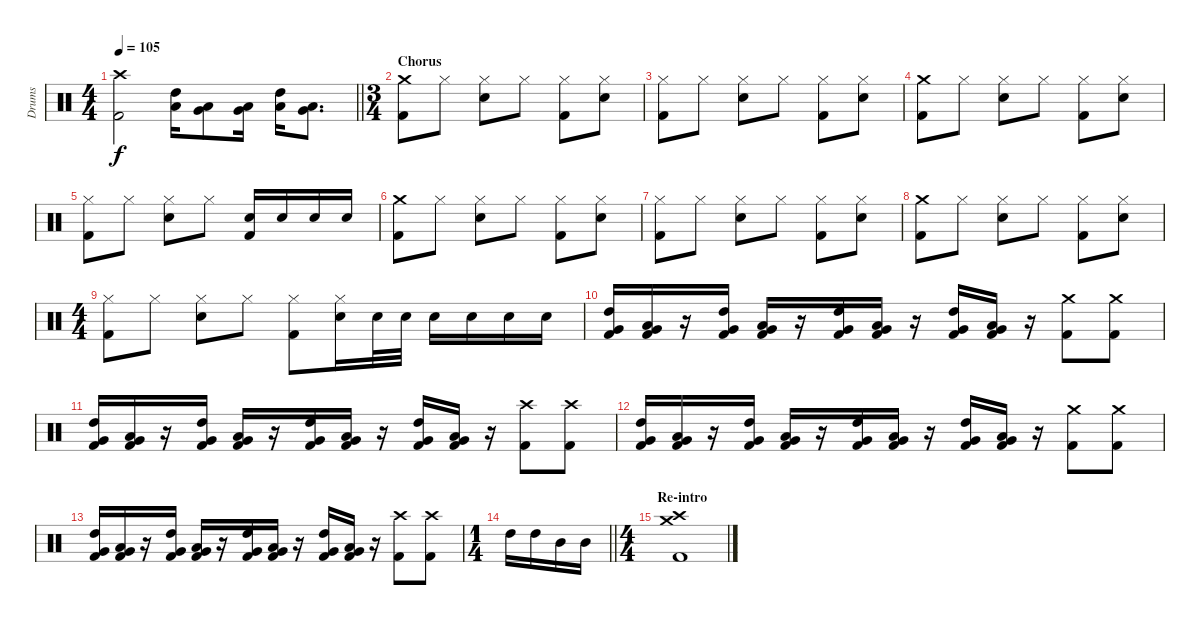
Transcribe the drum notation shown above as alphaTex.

\track ("Drums" "Drums") {instrument percussion}
\staff {score}
\articulation defaults
\ts (4 4)
\tempo 105
\clef neutral
\barLineRight lightlight
\ks c
("Kick (hit) 2" "Crash high (hit)").2{dy f} ("High Tom (hit)" "Low Tom (hit)").16 ("Low Tom (hit)" "Very Low Tom (hit)").8 ("Low Tom (hit)" "Very Low Tom (hit)").16 ("High Tom (hit)" "Low Tom (hit)").16 ("Low Tom (hit)" "Very Low Tom (hit)").8{d} |
\ts (3 4)
\section ("" "Chorus")
("Kick (hit) 2" "Crash medium (hit)").8 "Hi-Hat (closed)".8 ("Snare (hit) 2" "Hi-Hat (closed)").8 "Hi-Hat (closed)".8 ("Kick (hit) 2" "Hi-Hat (closed)").8 ("Snare (hit) 2" "Hi-Hat (closed)").8 |
("Kick (hit) 2" "Hi-Hat (closed)").8 "Hi-Hat (closed)".8 ("Snare (hit) 2" "Hi-Hat (closed)").8 "Hi-Hat (closed)".8 ("Kick (hit) 2" "Hi-Hat (closed)").8 ("Snare (hit) 2" "Hi-Hat (closed)").8 |
("Kick (hit) 2" "Crash medium (hit)").8 "Hi-Hat (closed)".8 ("Snare (hit) 2" "Hi-Hat (closed)").8 "Hi-Hat (closed)".8 ("Kick (hit) 2" "Hi-Hat (closed)").8 ("Snare (hit) 2" "Hi-Hat (closed)").8 |
("Kick (hit) 2" "Hi-Hat (closed)").8 "Hi-Hat (closed)".8 ("Snare (hit) 2" "Hi-Hat (closed)").8 "Hi-Hat (closed)".8 ("Kick (hit) 2" "Snare (hit) 2").16 "Snare (hit) 2".16 "Snare (hit) 2".16 "Snare (hit) 2".16 |
("Kick (hit) 2" "Crash medium (hit)").8 "Hi-Hat (closed)".8 ("Snare (hit) 2" "Hi-Hat (closed)").8 "Hi-Hat (closed)".8 ("Kick (hit) 2" "Hi-Hat (closed)").8 ("Snare (hit) 2" "Hi-Hat (closed)").8 |
("Kick (hit) 2" "Hi-Hat (closed)").8 "Hi-Hat (closed)".8 ("Snare (hit) 2" "Hi-Hat (closed)").8 "Hi-Hat (closed)".8 ("Kick (hit) 2" "Hi-Hat (closed)").8 ("Snare (hit) 2" "Hi-Hat (closed)").8 |
("Kick (hit) 2" "Crash medium (hit)").8 "Hi-Hat (closed)".8 ("Snare (hit) 2" "Hi-Hat (closed)").8 "Hi-Hat (closed)".8 ("Kick (hit) 2" "Hi-Hat (closed)").8 ("Snare (hit) 2" "Hi-Hat (closed)").8 |
\ts (4 4)
("Kick (hit) 2" "Hi-Hat (closed)").8 "Hi-Hat (closed)".8 ("Snare (hit) 2" "Hi-Hat (closed)").8 "Hi-Hat (closed)".8 ("Kick (hit) 2" "Hi-Hat (closed)").8 ("Snare (hit) 2" "Hi-Hat (closed)").16 "Snare (hit) 2".32 "Snare (hit) 2".32 "Snare (hit) 2".16 "Snare (hit) 2".16 "Snare (hit) 2".16 "Snare (hit) 2".16 |
("Kick (hit) 2" "Very Low Tom (hit)" "High Tom (hit)").16 ("Kick (hit) 2" "Very Low Tom (hit)" "Low Tom (hit)").16 r.16 ("Kick (hit) 2" "Very Low Tom (hit)" "High Tom (hit)").16 ("Kick (hit) 2" "Very Low Tom (hit)" "Low Tom (hit)").16 r.16 ("Kick (hit) 2" "Very Low Tom (hit)" "High Tom (hit)").16 ("Kick (hit) 2" "Very Low Tom (hit)" "Low Tom (hit)").16 r.16 ("Kick (hit) 2" "Very Low Tom (hit)" "High Tom (hit)").16 ("Kick (hit) 2" "Very Low Tom (hit)" "Low Tom (hit)").16 r.16 ("Kick (hit) 2" "Crash medium (hit)").8 ("Kick (hit) 2" "Crash medium (hit)").8 |
("Kick (hit) 2" "Very Low Tom (hit)" "High Tom (hit)").16 ("Kick (hit) 2" "Very Low Tom (hit)" "Low Tom (hit)").16 r.16 ("Kick (hit) 2" "Very Low Tom (hit)" "High Tom (hit)").16 ("Kick (hit) 2" "Very Low Tom (hit)" "Low Tom (hit)").16 r.16 ("Kick (hit) 2" "Very Low Tom (hit)" "High Tom (hit)").16 ("Kick (hit) 2" "Very Low Tom (hit)" "Low Tom (hit)").16 r.16 ("Kick (hit) 2" "Very Low Tom (hit)" "High Tom (hit)").16 ("Kick (hit) 2" "Very Low Tom (hit)" "Low Tom (hit)").16 r.16 ("Kick (hit) 2" "Crash high (hit)").8 ("Kick (hit) 2" "Crash high (hit)").8 |
("Kick (hit) 2" "Very Low Tom (hit)" "High Tom (hit)").16 ("Kick (hit) 2" "Very Low Tom (hit)" "Low Tom (hit)").16 r.16 ("Kick (hit) 2" "Very Low Tom (hit)" "High Tom (hit)").16 ("Kick (hit) 2" "Very Low Tom (hit)" "Low Tom (hit)").16 r.16 ("Kick (hit) 2" "Very Low Tom (hit)" "High Tom (hit)").16 ("Kick (hit) 2" "Very Low Tom (hit)" "Low Tom (hit)").16 r.16 ("Kick (hit) 2" "Very Low Tom (hit)" "High Tom (hit)").16 ("Kick (hit) 2" "Very Low Tom (hit)" "Low Tom (hit)").16 r.16 ("Kick (hit) 2" "Crash medium (hit)").8 ("Kick (hit) 2" "Crash medium (hit)").8 |
("Kick (hit) 2" "Very Low Tom (hit)" "High Tom (hit)").16 ("Kick (hit) 2" "Very Low Tom (hit)" "Low Tom (hit)").16 r.16 ("Kick (hit) 2" "Very Low Tom (hit)" "High Tom (hit)").16 ("Kick (hit) 2" "Very Low Tom (hit)" "Low Tom (hit)").16 r.16 ("Kick (hit) 2" "Very Low Tom (hit)" "High Tom (hit)").16 ("Kick (hit) 2" "Very Low Tom (hit)" "Low Tom (hit)").16 r.16 ("Kick (hit) 2" "Very Low Tom (hit)" "High Tom (hit)").16 ("Kick (hit) 2" "Very Low Tom (hit)" "Low Tom (hit)").16 r.16 ("Kick (hit) 2" "Crash high (hit)").8 ("Kick (hit) 2" "Crash high (hit)").8 |
\ts (1 4)
\barLineRight lightlight "High Tom (hit)".16 "High Tom (hit)".16 "Mid Tom (hit)".16 "Mid Tom (hit)".16
|
\ts (4 4)
\section ("" "Re-intro")
("Kick (hit) 2" "Crash high (hit)" "Crash medium (hit)").1
